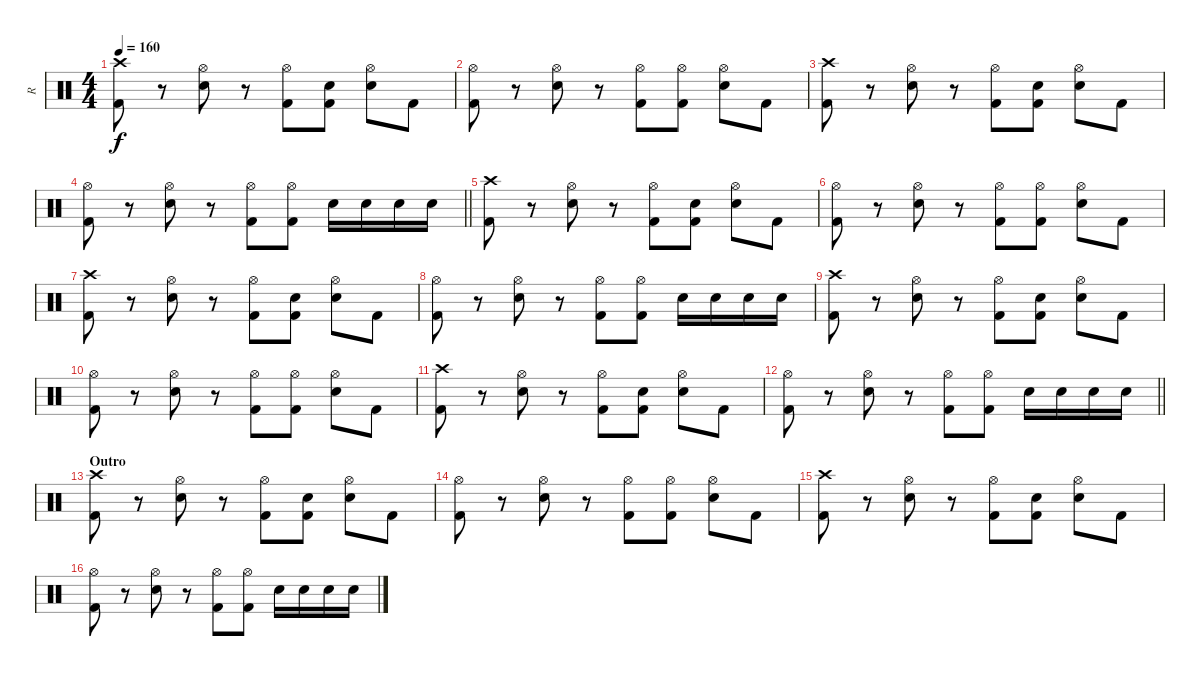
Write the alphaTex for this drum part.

\track ("R" "R") {instrument percussion}
\staff {score}
\articulation defaults
\ts (4 4)
\tempo 160
\clef neutral
\ks c
("Crash high (hit)" "Kick (hit) 2").8{dy f} r.8 ("Hi-Hat (open)" "Electric Snare (hit)").8 r.8 ("Hi-Hat (open)" "Kick (hit) 2").8 ("Electric Snare (hit)" "Kick (hit) 2").8 ("Hi-Hat (open)" "Electric Snare (hit)").8 "Kick (hit) 2".8 |
("Hi-Hat (open)" "Kick (hit) 2").8 r.8 ("Hi-Hat (open)" "Electric Snare (hit)").8 r.8 ("Hi-Hat (open)" "Kick (hit) 2").8 ("Hi-Hat (open)" "Kick (hit) 2").8 ("Hi-Hat (open)" "Electric Snare (hit)").8 "Kick (hit) 2".8 |
("Crash high (hit)" "Kick (hit) 2").8 r.8 ("Hi-Hat (open)" "Electric Snare (hit)").8 r.8 ("Hi-Hat (open)" "Kick (hit) 2").8 ("Electric Snare (hit)" "Kick (hit) 2").8 ("Hi-Hat (open)" "Electric Snare (hit)").8 "Kick (hit) 2".8 |
\barLineRight lightlight
("Hi-Hat (open)" "Kick (hit) 2").8 r.8 ("Hi-Hat (open)" "Electric Snare (hit)").8 r.8 ("Hi-Hat (open)" "Kick (hit) 2").8 ("Hi-Hat (open)" "Kick (hit) 2").8 "Electric Snare (hit)".16 "Electric Snare (hit)".16 "Electric Snare (hit)".16 "Electric Snare (hit)".16 |
("Crash high (hit)" "Kick (hit) 2").8 r.8 ("Hi-Hat (open)" "Electric Snare (hit)").8 r.8 ("Hi-Hat (open)" "Kick (hit) 2").8 ("Electric Snare (hit)" "Kick (hit) 2").8 ("Hi-Hat (open)" "Electric Snare (hit)").8 "Kick (hit) 2".8 |
("Hi-Hat (open)" "Kick (hit) 2").8 r.8 ("Hi-Hat (open)" "Electric Snare (hit)").8 r.8 ("Hi-Hat (open)" "Kick (hit) 2").8 ("Hi-Hat (open)" "Kick (hit) 2").8 ("Hi-Hat (open)" "Electric Snare (hit)").8 "Kick (hit) 2".8 |
("Crash high (hit)" "Kick (hit) 2").8 r.8 ("Hi-Hat (open)" "Electric Snare (hit)").8 r.8 ("Hi-Hat (open)" "Kick (hit) 2").8 ("Electric Snare (hit)" "Kick (hit) 2").8 ("Hi-Hat (open)" "Electric Snare (hit)").8 "Kick (hit) 2".8 |
("Hi-Hat (open)" "Kick (hit) 2").8 r.8 ("Hi-Hat (open)" "Electric Snare (hit)").8 r.8 ("Hi-Hat (open)" "Kick (hit) 2").8 ("Hi-Hat (open)" "Kick (hit) 2").8 "Electric Snare (hit)".16 "Electric Snare (hit)".16 "Electric Snare (hit)".16 "Electric Snare (hit)".16 |
("Crash high (hit)" "Kick (hit) 2").8 r.8 ("Hi-Hat (open)" "Electric Snare (hit)").8 r.8 ("Hi-Hat (open)" "Kick (hit) 2").8 ("Electric Snare (hit)" "Kick (hit) 2").8 ("Hi-Hat (open)" "Electric Snare (hit)").8 "Kick (hit) 2".8 |
("Hi-Hat (open)" "Kick (hit) 2").8 r.8 ("Hi-Hat (open)" "Electric Snare (hit)").8 r.8 ("Hi-Hat (open)" "Kick (hit) 2").8 ("Hi-Hat (open)" "Kick (hit) 2").8 ("Hi-Hat (open)" "Electric Snare (hit)").8 "Kick (hit) 2".8 |
("Crash high (hit)" "Kick (hit) 2").8 r.8 ("Hi-Hat (open)" "Electric Snare (hit)").8 r.8 ("Hi-Hat (open)" "Kick (hit) 2").8 ("Electric Snare (hit)" "Kick (hit) 2").8 ("Hi-Hat (open)" "Electric Snare (hit)").8 "Kick (hit) 2".8 |
\barLineRight lightlight
("Hi-Hat (open)" "Kick (hit) 2").8 r.8 ("Hi-Hat (open)" "Electric Snare (hit)").8 r.8 ("Hi-Hat (open)" "Kick (hit) 2").8 ("Hi-Hat (open)" "Kick (hit) 2").8 "Electric Snare (hit)".16 "Electric Snare (hit)".16 "Electric Snare (hit)".16 "Electric Snare (hit)".16 |
\section ("" "Outro")
("Crash high (hit)" "Kick (hit) 2").8 r.8 ("Hi-Hat (open)" "Electric Snare (hit)").8 r.8 ("Hi-Hat (open)" "Kick (hit) 2").8 ("Electric Snare (hit)" "Kick (hit) 2").8 ("Hi-Hat (open)" "Electric Snare (hit)").8 "Kick (hit) 2".8 |
("Hi-Hat (open)" "Kick (hit) 2").8 r.8 ("Hi-Hat (open)" "Electric Snare (hit)").8 r.8 ("Hi-Hat (open)" "Kick (hit) 2").8 ("Hi-Hat (open)" "Kick (hit) 2").8 ("Hi-Hat (open)" "Electric Snare (hit)").8 "Kick (hit) 2".8 |
("Crash high (hit)" "Kick (hit) 2").8 r.8 ("Hi-Hat (open)" "Electric Snare (hit)").8 r.8 ("Hi-Hat (open)" "Kick (hit) 2").8 ("Electric Snare (hit)" "Kick (hit) 2").8 ("Hi-Hat (open)" "Electric Snare (hit)").8 "Kick (hit) 2".8 |
("Hi-Hat (open)" "Kick (hit) 2").8 r.8 ("Hi-Hat (open)" "Electric Snare (hit)").8 r.8 ("Hi-Hat (open)" "Kick (hit) 2").8 ("Hi-Hat (open)" "Kick (hit) 2").8 "Electric Snare (hit)".16 "Electric Snare (hit)".16 "Electric Snare (hit)".16 "Electric Snare (hit)".16
